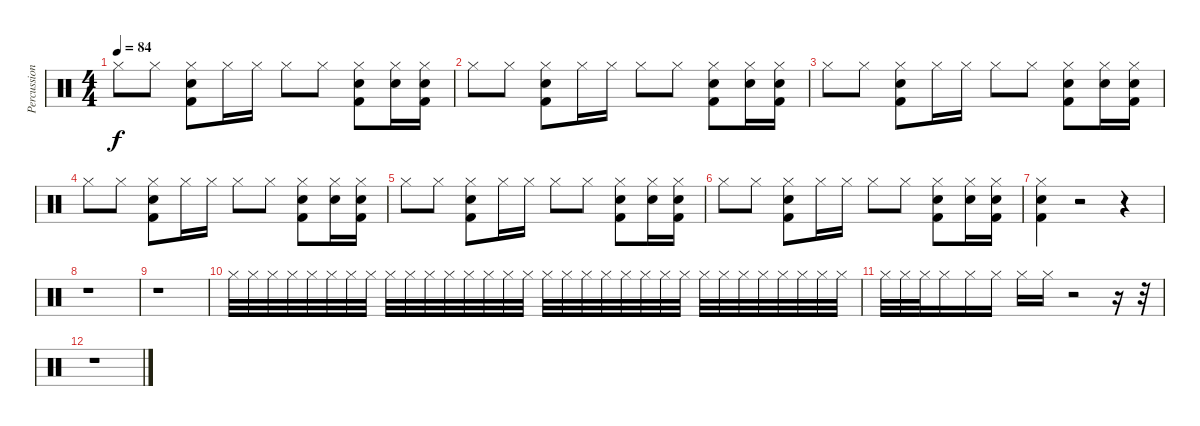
\track ("Percussion" "Percussion") {instrument percussion}
\staff {score}
\articulation defaults
\ts (4 4)
\tempo 84
\clef neutral
\ks c "Hi-Hat (closed)".8{dy f} "Hi-Hat (closed)".8
("Hi-Hat (closed)" "Snare (hit) 2" "Kick (hit) 2").8 "Hi-Hat (closed)".16 "Hi-Hat (closed)".16 "Hi-Hat (closed)".8 "Hi-Hat (closed)".8 ("Hi-Hat (closed)" "Snare (hit) 2" "Kick (hit) 2").8 ("Hi-Hat (closed)" "Snare (hit) 2").16 ("Hi-Hat (closed)" "Snare (hit) 2" "Kick (hit) 2").16 |
"Hi-Hat (closed)".8 "Hi-Hat (closed)".8 ("Hi-Hat (closed)" "Snare (hit) 2" "Kick (hit) 2").8 "Hi-Hat (closed)".16 "Hi-Hat (closed)".16 "Hi-Hat (closed)".8 "Hi-Hat (closed)".8 ("Hi-Hat (closed)" "Snare (hit) 2" "Kick (hit) 2").8 ("Hi-Hat (closed)" "Snare (hit) 2").16 ("Hi-Hat (closed)" "Snare (hit) 2" "Kick (hit) 2").16 |
"Hi-Hat (closed)".8 "Hi-Hat (closed)".8 ("Hi-Hat (closed)" "Snare (hit) 2" "Kick (hit) 2").8 "Hi-Hat (closed)".16 "Hi-Hat (closed)".16 "Hi-Hat (closed)".8 "Hi-Hat (closed)".8 ("Hi-Hat (closed)" "Snare (hit) 2" "Kick (hit) 2").8 ("Hi-Hat (closed)" "Snare (hit) 2").16 ("Hi-Hat (closed)" "Snare (hit) 2" "Kick (hit) 2").16 |
"Hi-Hat (closed)".8 "Hi-Hat (closed)".8 ("Hi-Hat (closed)" "Snare (hit) 2" "Kick (hit) 2").8 "Hi-Hat (closed)".16 "Hi-Hat (closed)".16 "Hi-Hat (closed)".8 "Hi-Hat (closed)".8 ("Hi-Hat (closed)" "Snare (hit) 2" "Kick (hit) 2").8 ("Hi-Hat (closed)" "Snare (hit) 2").16 ("Hi-Hat (closed)" "Snare (hit) 2" "Kick (hit) 2").16 |
"Hi-Hat (closed)".8 "Hi-Hat (closed)".8 ("Hi-Hat (closed)" "Snare (hit) 2" "Kick (hit) 2").8 "Hi-Hat (closed)".16 "Hi-Hat (closed)".16 "Hi-Hat (closed)".8 "Hi-Hat (closed)".8 ("Hi-Hat (closed)" "Snare (hit) 2" "Kick (hit) 2").8 ("Hi-Hat (closed)" "Snare (hit) 2").16 ("Hi-Hat (closed)" "Snare (hit) 2" "Kick (hit) 2").16 |
"Hi-Hat (closed)".8 "Hi-Hat (closed)".8 ("Hi-Hat (closed)" "Snare (hit) 2" "Kick (hit) 2").8 "Hi-Hat (closed)".16 "Hi-Hat (closed)".16 "Hi-Hat (closed)".8 "Hi-Hat (closed)".8 ("Hi-Hat (closed)" "Snare (hit) 2" "Kick (hit) 2").8 ("Hi-Hat (closed)" "Snare (hit) 2").16 ("Hi-Hat (closed)" "Snare (hit) 2" "Kick (hit) 2").16 |
("Hi-Hat (closed)" "Snare (hit) 2" "Kick (hit) 2").4 r.2 r.4 |
r.1 |
r.1 |
"Hi-Hat (closed)".32 "Hi-Hat (closed)".32 "Hi-Hat (closed)".32 "Hi-Hat (closed)".32 "Hi-Hat (closed)".32 "Hi-Hat (closed)".32 "Hi-Hat (closed)".32 "Hi-Hat (closed)".32 "Hi-Hat (closed)".32 "Hi-Hat (closed)".32 "Hi-Hat (closed)".32 "Hi-Hat (closed)".32 "Hi-Hat (closed)".32 "Hi-Hat (closed)".32 "Hi-Hat (closed)".32 "Hi-Hat (closed)".32 "Hi-Hat (closed)".32 "Hi-Hat (closed)".32 "Hi-Hat (closed)".32 "Hi-Hat (closed)".32 "Hi-Hat (closed)".32 "Hi-Hat (closed)".32 "Hi-Hat (closed)".32 "Hi-Hat (closed)".32 "Hi-Hat (closed)".32 "Hi-Hat (closed)".32 "Hi-Hat (closed)".32 "Hi-Hat (closed)".32 "Hi-Hat (closed)".32 "Hi-Hat (closed)".32 "Hi-Hat (closed)".32 "Hi-Hat (closed)".32 |
"Hi-Hat (closed)".32 "Hi-Hat (closed)".32 "Hi-Hat (closed)".32 "Hi-Hat (closed)".16 "Hi-Hat (closed)".16 "Hi-Hat (closed)".16 "Hi-Hat (closed)".16 "Hi-Hat (closed)".16 r.2 r.16 r.32 |
r.1
